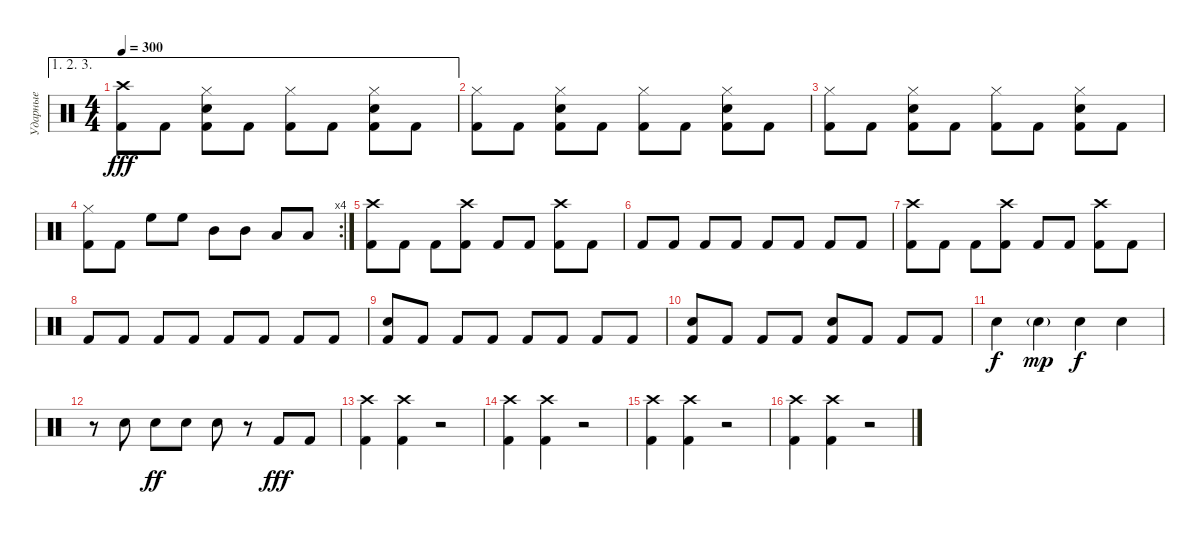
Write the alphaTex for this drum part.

\track ("Ударные" "Ударные") {instrument percussion}
\staff {score}
\articulation defaults
\ae (1 2 3)
\ts (4 4)
\tempo 300
\clef neutral
\ks c
("Kick (hit) 2" "Crash high (hit)").8{dy fff} "Kick (hit) 2".8 ("Kick (hit) 2" "Snare (hit) 2" "Hi-Hat (closed)").8 "Kick (hit) 2".8 ("Kick (hit) 2" "Hi-Hat (closed)").8 "Kick (hit) 2".8 ("Kick (hit) 2" "Snare (hit) 2" "Hi-Hat (closed)").8 "Kick (hit) 2".8 |
("Kick (hit) 2" "Hi-Hat (closed)").8 "Kick (hit) 2".8 ("Kick (hit) 2" "Snare (hit) 2" "Hi-Hat (closed)").8 "Kick (hit) 2".8 ("Kick (hit) 2" "Hi-Hat (closed)").8 "Kick (hit) 2".8 ("Kick (hit) 2" "Snare (hit) 2" "Hi-Hat (closed)").8 "Kick (hit) 2".8 |
("Kick (hit) 2" "Hi-Hat (closed)").8 "Kick (hit) 2".8 ("Kick (hit) 2" "Snare (hit) 2" "Hi-Hat (closed)").8 "Kick (hit) 2".8 ("Kick (hit) 2" "Hi-Hat (closed)").8 "Kick (hit) 2".8 ("Kick (hit) 2" "Snare (hit) 2" "Hi-Hat (closed)").8 "Kick (hit) 2".8 |
\rc 4
("Kick (hit) 2" "Hi-Hat (closed)").8 "Kick (hit) 2".8 "High Floor Tom (hit)".8 "High Floor Tom (hit)".8 "Mid Tom (hit)".8 "Mid Tom (hit)".8 "Low Tom (hit)".8 "Low Tom (hit)".8 |
("Kick (hit) 2" "Crash high (hit)").8 "Kick (hit) 2".8 "Kick (hit) 2".8 ("Kick (hit) 2" "Crash high (hit)").8 "Kick (hit) 2".8 "Kick (hit) 2".8 ("Kick (hit) 2" "Crash high (hit)").8 "Kick (hit) 2".8 |
"Kick (hit) 2".8 "Kick (hit) 2".8 "Kick (hit) 2".8 "Kick (hit) 2".8 "Kick (hit) 2".8 "Kick (hit) 2".8 "Kick (hit) 2".8 "Kick (hit) 2".8 |
("Kick (hit) 2" "Crash high (hit)").8 "Kick (hit) 2".8 "Kick (hit) 2".8 ("Kick (hit) 2" "Crash high (hit)").8 "Kick (hit) 2".8 "Kick (hit) 2".8 ("Kick (hit) 2" "Crash high (hit)").8 "Kick (hit) 2".8 |
"Kick (hit) 2".8 "Kick (hit) 2".8 "Kick (hit) 2".8 "Kick (hit) 2".8 "Kick (hit) 2".8 "Kick (hit) 2".8 "Kick (hit) 2".8 "Kick (hit) 2".8 |
("Kick (hit) 2" "Snare (hit) 2").8 "Kick (hit) 2".8 "Kick (hit) 2".8 "Kick (hit) 2".8 "Kick (hit) 2".8 "Kick (hit) 2".8 "Kick (hit) 2".8 "Kick (hit) 2".8 |
("Kick (hit) 2" "Snare (hit) 2").8 "Kick (hit) 2".8 "Kick (hit) 2".8 "Kick (hit) 2".8 ("Kick (hit) 2" "Snare (hit) 2").8 "Kick (hit) 2".8 "Kick (hit) 2".8 "Kick (hit) 2".8 |
"Snare (hit) 2".4{dy f} "Electric Snare (hit)"{g}.4{dy mp} "Snare (hit) 2".4{dy f} "Snare (hit) 2".4 |
r.8 "Snare (hit) 2".8 "Electric Snare (hit)".8{dy ff} "Electric Snare (hit)".8 "Electric Snare (hit)".8 r.8 "Kick (hit) 2".8{dy fff} "Kick (hit) 2".8 |
("Kick (hit) 2" "Crash high (hit)").4 ("Kick (hit) 2" "Crash high (hit)").4 r.2 |
("Kick (hit) 2" "Crash high (hit)").4 ("Kick (hit) 2" "Crash high (hit)").4 r.2 |
("Kick (hit) 2" "Crash high (hit)").4 ("Kick (hit) 2" "Crash high (hit)").4 r.2 |
("Kick (hit) 2" "Crash high (hit)").4 ("Kick (hit) 2" "Crash high (hit)").4 r.2
